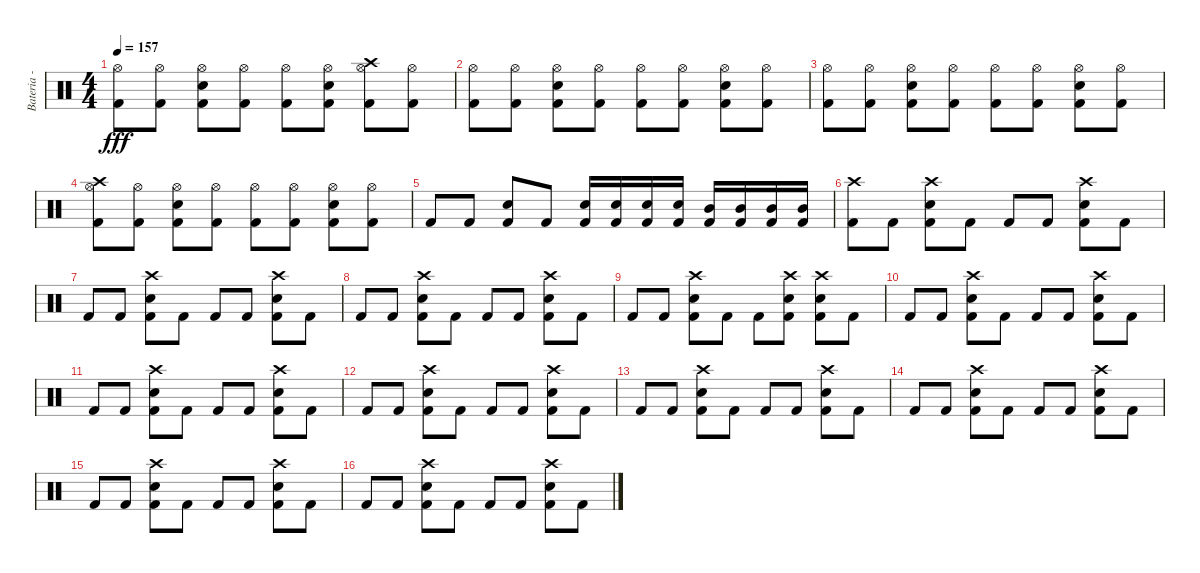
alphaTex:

\track ("Bateria - Larzon" "Bateria - ") {instrument percussion}
\staff {score}
\articulation defaults
\ts (4 4)
\tempo 157
\clef neutral
\ks c
("Kick (hit) 2" "Hi-Hat (open)").8{dy fff} ("Kick (hit) 2" "Hi-Hat (open)").8 ("Kick (hit) 2" "Hi-Hat (open)" "Snare (hit) 2").8 ("Kick (hit) 2" "Hi-Hat (open)").8 ("Kick (hit) 2" "Hi-Hat (open)").8 ("Kick (hit) 2" "Hi-Hat (open)" "Snare (hit) 2").8 ("Kick (hit) 2" "Crash high (hit)" "Hi-Hat (open)").8 ("Kick (hit) 2" "Hi-Hat (open)").8 |
("Kick (hit) 2" "Hi-Hat (open)").8 ("Kick (hit) 2" "Hi-Hat (open)").8 ("Kick (hit) 2" "Hi-Hat (open)" "Snare (hit) 2").8 ("Kick (hit) 2" "Hi-Hat (open)").8 ("Kick (hit) 2" "Hi-Hat (open)").8 ("Kick (hit) 2" "Hi-Hat (open)").8 ("Kick (hit) 2" "Hi-Hat (open)" "Snare (hit) 2").8 ("Kick (hit) 2" "Hi-Hat (open)").8 |
("Kick (hit) 2" "Hi-Hat (open)").8 ("Kick (hit) 2" "Hi-Hat (open)").8 ("Kick (hit) 2" "Hi-Hat (open)" "Snare (hit) 2").8 ("Kick (hit) 2" "Hi-Hat (open)").8 ("Kick (hit) 2" "Hi-Hat (open)").8 ("Kick (hit) 2" "Hi-Hat (open)").8 ("Kick (hit) 2" "Hi-Hat (open)" "Snare (hit) 2").8 ("Kick (hit) 2" "Hi-Hat (open)").8 |
("Kick (hit) 2" "Crash high (hit)" "Hi-Hat (open)").8 ("Kick (hit) 2" "Hi-Hat (open)").8 ("Kick (hit) 2" "Hi-Hat (open)" "Snare (hit) 2").8 ("Kick (hit) 2" "Hi-Hat (open)").8 ("Kick (hit) 2" "Hi-Hat (open)").8 ("Kick (hit) 2" "Hi-Hat (open)").8 ("Kick (hit) 2" "Hi-Hat (open)" "Snare (hit) 2").8 ("Kick (hit) 2" "Hi-Hat (open)").8 |
"Kick (hit) 2".8 "Kick (hit) 2".8 ("Kick (hit) 2" "Snare (hit) 2").8 "Kick (hit) 2".8 ("Kick (hit) 2" "Snare (hit) 2").16 ("Kick (hit) 2" "Snare (hit) 2").16 ("Kick (hit) 2" "Snare (hit) 2").16 ("Kick (hit) 2" "Snare (hit) 2").16 ("Kick (hit) 2" "Mid Tom (hit)").16 ("Kick (hit) 2" "Mid Tom (hit)").16 ("Kick (hit) 2" "Mid Tom (hit)").16 ("Kick (hit) 2" "Mid Tom (hit)").16 |
("Kick (hit) 2" "Crash high (hit)").8 "Kick (hit) 2".8 ("Kick (hit) 2" "Crash high (hit)" "Snare (hit) 2").8 "Kick (hit) 2".8 "Kick (hit) 2".8 "Kick (hit) 2".8 ("Kick (hit) 2" "Crash high (hit)" "Snare (hit) 2").8 "Kick (hit) 2".8 |
"Kick (hit) 2".8 "Kick (hit) 2".8 ("Kick (hit) 2" "Crash high (hit)" "Snare (hit) 2").8 "Kick (hit) 2".8 "Kick (hit) 2".8 "Kick (hit) 2".8 ("Kick (hit) 2" "Crash high (hit)" "Snare (hit) 2").8 "Kick (hit) 2".8 |
"Kick (hit) 2".8 "Kick (hit) 2".8 ("Kick (hit) 2" "Crash high (hit)" "Snare (hit) 2").8 "Kick (hit) 2".8 "Kick (hit) 2".8 "Kick (hit) 2".8 ("Kick (hit) 2" "Crash high (hit)" "Snare (hit) 2").8 "Kick (hit) 2".8 |
"Kick (hit) 2".8 "Kick (hit) 2".8 ("Kick (hit) 2" "Crash high (hit)" "Snare (hit) 2").8 "Kick (hit) 2".8 "Kick (hit) 2".8 ("Kick (hit) 2" "Crash high (hit)" "Snare (hit) 2").8 ("Kick (hit) 2" "Crash high (hit)" "Snare (hit) 2").8 "Kick (hit) 2".8 |
"Kick (hit) 2".8 "Kick (hit) 2".8 ("Kick (hit) 2" "Crash high (hit)" "Snare (hit) 2").8 "Kick (hit) 2".8 "Kick (hit) 2".8 "Kick (hit) 2".8 ("Kick (hit) 2" "Crash high (hit)" "Snare (hit) 2").8 "Kick (hit) 2".8 |
"Kick (hit) 2".8 "Kick (hit) 2".8 ("Kick (hit) 2" "Crash high (hit)" "Snare (hit) 2").8 "Kick (hit) 2".8 "Kick (hit) 2".8 "Kick (hit) 2".8 ("Kick (hit) 2" "Crash high (hit)" "Snare (hit) 2").8 "Kick (hit) 2".8 |
"Kick (hit) 2".8 "Kick (hit) 2".8 ("Kick (hit) 2" "Crash high (hit)" "Snare (hit) 2").8 "Kick (hit) 2".8 "Kick (hit) 2".8 "Kick (hit) 2".8 ("Kick (hit) 2" "Crash high (hit)" "Snare (hit) 2").8 "Kick (hit) 2".8 |
"Kick (hit) 2".8 "Kick (hit) 2".8 ("Kick (hit) 2" "Crash high (hit)" "Snare (hit) 2").8 "Kick (hit) 2".8 "Kick (hit) 2".8 "Kick (hit) 2".8 ("Kick (hit) 2" "Crash high (hit)" "Snare (hit) 2").8 "Kick (hit) 2".8 |
"Kick (hit) 2".8 "Kick (hit) 2".8 ("Kick (hit) 2" "Crash high (hit)" "Snare (hit) 2").8 "Kick (hit) 2".8 "Kick (hit) 2".8 "Kick (hit) 2".8 ("Kick (hit) 2" "Crash high (hit)" "Snare (hit) 2").8 "Kick (hit) 2".8 |
"Kick (hit) 2".8 "Kick (hit) 2".8 ("Kick (hit) 2" "Crash high (hit)" "Snare (hit) 2").8 "Kick (hit) 2".8 "Kick (hit) 2".8 "Kick (hit) 2".8 ("Kick (hit) 2" "Crash high (hit)" "Snare (hit) 2").8 "Kick (hit) 2".8 |
"Kick (hit) 2".8 "Kick (hit) 2".8 ("Kick (hit) 2" "Crash high (hit)" "Snare (hit) 2").8 "Kick (hit) 2".8 "Kick (hit) 2".8 "Kick (hit) 2".8 ("Kick (hit) 2" "Crash high (hit)" "Snare (hit) 2").8 "Kick (hit) 2".8
